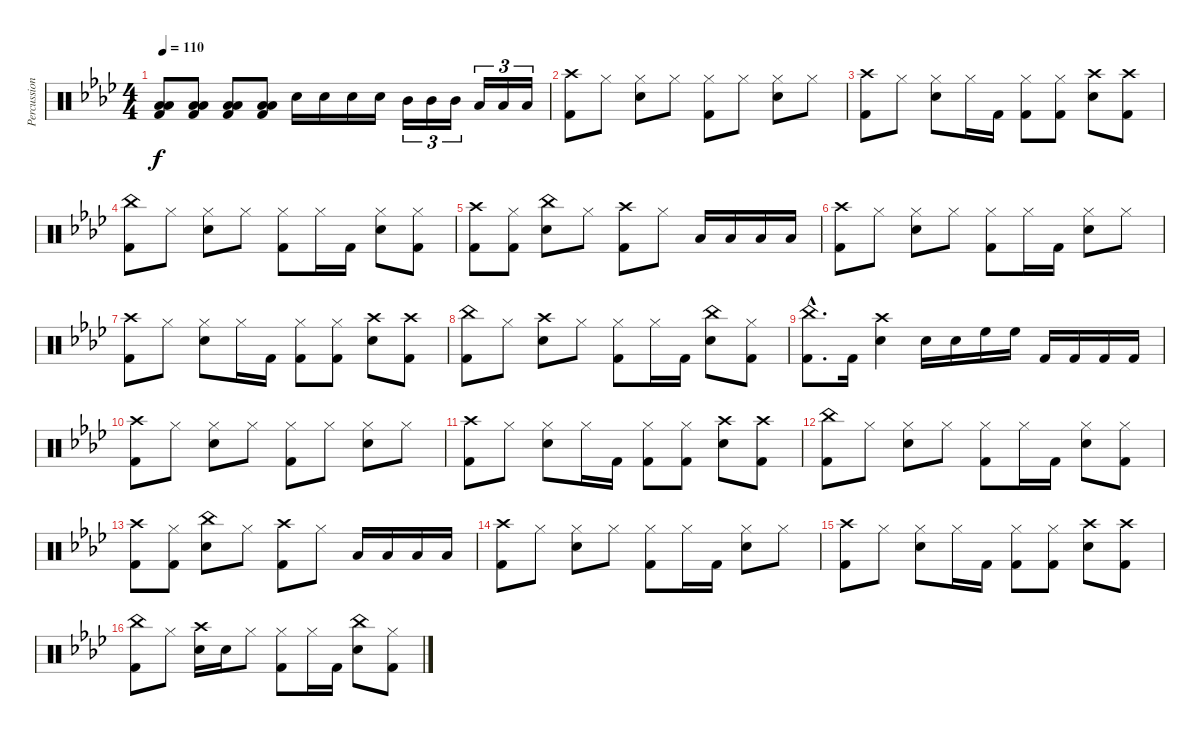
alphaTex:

\track ("Percussions" "Percussion") {instrument percussion}
\staff {score}
\articulation defaults
\ts (4 4)
\tempo 110
\clef neutral
\ks fminor
("Low Tom (hit)" "Low Floor Tom (hit)" "Kick (hit) 2").8{dy f} ("Low Tom (hit)" "Low Floor Tom (hit)" "Kick (hit) 2").8 ("Low Tom (hit)" "Low Floor Tom (hit)" "Kick (hit) 2").8 ("Low Tom (hit)" "Low Floor Tom (hit)" "Kick (hit) 2").8 "Snare (hit) 2".16 "Snare (hit) 2".16 "Snare (hit) 2".16 "Snare (hit) 2".16 "Mid Tom (hit)".16{tu (3 2)} "Mid Tom (hit)".16{tu (3 2)} "Mid Tom (hit)".16{tu (3 2)} "Low Tom (hit)".16{tu (3 2)} "Low Tom (hit)".16{tu (3 2)} "Low Tom (hit)".16{tu (3 2)} |
("Crash high (hit)" "Kick (hit) 2").8 "Hi-Hat (closed)".8 ("Hi-Hat (closed)" "Snare (hit) 2").8 "Hi-Hat (closed)".8 ("Hi-Hat (closed)" "Kick (hit) 2").8 "Hi-Hat (closed)".8 ("Hi-Hat (closed)" "Snare (hit) 2").8 "Hi-Hat (closed)".8 |
("Crash high (hit)" "Kick (hit) 2").8 "Hi-Hat (closed)".8 ("Hi-Hat (closed)" "Snare (hit) 2").8 "Hi-Hat (closed)".16 "Kick (hit) 2".16 ("Hi-Hat (closed)" "Kick (hit) 2").8 ("Hi-Hat (closed)" "Kick (hit) 2").8 ("Crash high (hit)" "Snare (hit) 2").8 ("Crash high (hit)" "Kick (hit) 2").8 |
("China (hit)" "Kick (hit) 2").8 "Hi-Hat (closed)".8 ("Hi-Hat (closed)" "Snare (hit) 2").8 "Hi-Hat (closed)".8 ("Hi-Hat (closed)" "Kick (hit) 2").8 "Hi-Hat (closed)".16 "Kick (hit) 2".16 ("Hi-Hat (closed)" "Snare (hit) 2").8 ("Hi-Hat (closed)" "Kick (hit) 2").8 |
("Crash high (hit)" "Kick (hit) 2").8 ("Hi-Hat (closed)" "Kick (hit) 2").8 ("China (hit)" "Snare (hit) 2").8 "Hi-Hat (closed)".8 ("Crash high (hit)" "Kick (hit) 2").8 "Hi-Hat (closed)".8 "Low Tom (hit)".16 "Low Tom (hit)".16 "Low Tom (hit)".16 "Low Tom (hit)".16 |
("Crash high (hit)" "Kick (hit) 2").8 "Hi-Hat (closed)".8 ("Hi-Hat (closed)" "Snare (hit) 2").8 "Hi-Hat (closed)".8 ("Hi-Hat (closed)" "Kick (hit) 2").8 "Hi-Hat (closed)".16 "Kick (hit) 2".16 ("Hi-Hat (closed)" "Snare (hit) 2").8 "Hi-Hat (closed)".8 |
("Crash high (hit)" "Kick (hit) 2").8 "Hi-Hat (closed)".8 ("Hi-Hat (closed)" "Snare (hit) 2").8 "Hi-Hat (closed)".16 "Kick (hit) 2".16 ("Hi-Hat (closed)" "Kick (hit) 2").8 ("Hi-Hat (closed)" "Kick (hit) 2").8 ("Crash high (hit)" "Snare (hit) 2").8 ("Crash high (hit)" "Kick (hit) 2").8 |
("China (hit)" "Kick (hit) 2").8 "Hi-Hat (closed)".8 ("Crash high (hit)" "Snare (hit) 2").8 "Hi-Hat (closed)".8 ("Hi-Hat (closed)" "Kick (hit) 2").8 "Hi-Hat (closed)".16 "Kick (hit) 2".16 ("China (hit)" "Snare (hit) 2").8 ("Hi-Hat (closed)" "Kick (hit) 2").8 |
("China (hit)"{hac} "Kick (hit) 2"{hac}).8{d} "Kick (hit) 2".16 ("Crash high (hit)" "Snare (hit) 2").4 "Snare (hit) 2".16 "Snare (hit) 2".16 "High Floor Tom (hit)".16 "High Floor Tom (hit)".16 "Kick (hit) 2".16 "Kick (hit) 2".16 "Kick (hit) 2".16 "Kick (hit) 2".16 |
("Crash high (hit)" "Kick (hit) 2").8 "Hi-Hat (closed)".8 ("Hi-Hat (closed)" "Snare (hit) 2").8 "Hi-Hat (closed)".8 ("Hi-Hat (closed)" "Kick (hit) 2").8 "Hi-Hat (closed)".8 ("Hi-Hat (closed)" "Snare (hit) 2").8 "Hi-Hat (closed)".8 |
("Crash high (hit)" "Kick (hit) 2").8 "Hi-Hat (closed)".8 ("Hi-Hat (closed)" "Snare (hit) 2").8 "Hi-Hat (closed)".16 "Kick (hit) 2".16 ("Hi-Hat (closed)" "Kick (hit) 2").8 ("Hi-Hat (closed)" "Kick (hit) 2").8 ("Crash high (hit)" "Snare (hit) 2").8 ("Crash high (hit)" "Kick (hit) 2").8 |
("China (hit)" "Kick (hit) 2").8 "Hi-Hat (closed)".8 ("Hi-Hat (closed)" "Snare (hit) 2").8 "Hi-Hat (closed)".8 ("Hi-Hat (closed)" "Kick (hit) 2").8 "Hi-Hat (closed)".16 "Kick (hit) 2".16 ("Hi-Hat (closed)" "Snare (hit) 2").8 ("Hi-Hat (closed)" "Kick (hit) 2").8 |
("Crash high (hit)" "Kick (hit) 2").8 ("Hi-Hat (closed)" "Kick (hit) 2").8 ("China (hit)" "Snare (hit) 2").8 "Hi-Hat (closed)".8 ("Crash high (hit)" "Kick (hit) 2").8 "Hi-Hat (closed)".8 "Low Tom (hit)".16 "Low Tom (hit)".16 "Low Tom (hit)".16 "Low Tom (hit)".16 |
("Crash high (hit)" "Kick (hit) 2").8 "Hi-Hat (closed)".8 ("Hi-Hat (closed)" "Snare (hit) 2").8 "Hi-Hat (closed)".8 ("Hi-Hat (closed)" "Kick (hit) 2").8 "Hi-Hat (closed)".16 "Kick (hit) 2".16 ("Hi-Hat (closed)" "Snare (hit) 2").8 "Hi-Hat (closed)".8 |
("Crash high (hit)" "Kick (hit) 2").8 "Hi-Hat (closed)".8 ("Hi-Hat (closed)" "Snare (hit) 2").8 "Hi-Hat (closed)".16 "Kick (hit) 2".16 ("Hi-Hat (closed)" "Kick (hit) 2").8 ("Hi-Hat (closed)" "Kick (hit) 2").8 ("Crash high (hit)" "Snare (hit) 2").8 ("Crash high (hit)" "Kick (hit) 2").8 |
("China (hit)" "Kick (hit) 2").8 "Hi-Hat (closed)".8 ("Crash high (hit)" "Snare (hit) 2").16 "Snare (hit) 2".16 "Hi-Hat (closed)".8 ("Hi-Hat (closed)" "Kick (hit) 2").8 "Hi-Hat (closed)".16 "Kick (hit) 2".16 ("China (hit)" "Snare (hit) 2").8 ("Hi-Hat (closed)" "Kick (hit) 2").8
